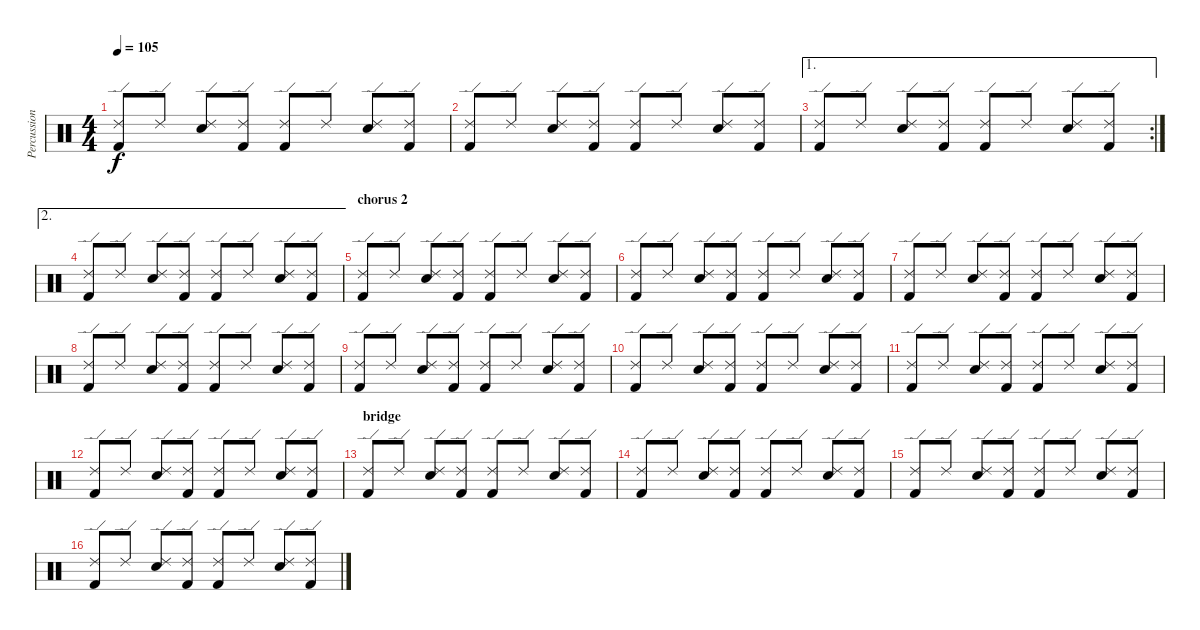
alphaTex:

\track ("Percussion" "Percussion") {instrument percussion}
\staff {score}
\articulation defaults
\ts (4 4)
\tempo 105
\clef neutral
\ks c
("Ride (edge) 2" "Kick (hit) 2").8{dy f} "Ride (edge) 2".8 ("Ride (edge) 2" "Electric Snare (hit)").8 ("Ride (edge) 2" "Kick (hit) 2").8 ("Ride (edge) 2" "Kick (hit) 2").8 "Ride (edge) 2".8 ("Ride (edge) 2" "Electric Snare (hit)").8 ("Ride (edge) 2" "Kick (hit) 2").8 |
("Ride (edge) 2" "Kick (hit) 2").8 "Ride (edge) 2".8 ("Ride (edge) 2" "Electric Snare (hit)").8 ("Ride (edge) 2" "Kick (hit) 2").8 ("Ride (edge) 2" "Kick (hit) 2").8 "Ride (edge) 2".8 ("Ride (edge) 2" "Electric Snare (hit)").8 ("Ride (edge) 2" "Kick (hit) 2").8 |
\ae 1
\rc 2
("Ride (edge) 2" "Kick (hit) 2").8 "Ride (edge) 2".8 ("Ride (edge) 2" "Electric Snare (hit)").8 ("Ride (edge) 2" "Kick (hit) 2").8 ("Ride (edge) 2" "Kick (hit) 2").8 "Ride (edge) 2".8 ("Ride (edge) 2" "Electric Snare (hit)").8 ("Ride (edge) 2" "Kick (hit) 2").8 |
\ae 2
("Ride (edge) 2" "Kick (hit) 2").8 "Ride (edge) 2".8 ("Ride (edge) 2" "Electric Snare (hit)").8 ("Ride (edge) 2" "Kick (hit) 2").8 ("Ride (edge) 2" "Kick (hit) 2").8 "Ride (edge) 2".8 ("Ride (edge) 2" "Electric Snare (hit)").8 ("Ride (edge) 2" "Kick (hit) 2").8 |
\section ("" "chorus 2")
("Ride (edge) 2" "Kick (hit) 2").8 "Ride (edge) 2".8 ("Ride (edge) 2" "Electric Snare (hit)").8 ("Ride (edge) 2" "Kick (hit) 2").8 ("Ride (edge) 2" "Kick (hit) 2").8 "Ride (edge) 2".8 ("Ride (edge) 2" "Electric Snare (hit)").8 ("Ride (edge) 2" "Kick (hit) 2").8 |
("Ride (edge) 2" "Kick (hit) 2").8 "Ride (edge) 2".8 ("Ride (edge) 2" "Electric Snare (hit)").8 ("Ride (edge) 2" "Kick (hit) 2").8 ("Ride (edge) 2" "Kick (hit) 2").8 "Ride (edge) 2".8 ("Ride (edge) 2" "Electric Snare (hit)").8 ("Ride (edge) 2" "Kick (hit) 2").8 |
("Ride (edge) 2" "Kick (hit) 2").8 "Ride (edge) 2".8 ("Ride (edge) 2" "Electric Snare (hit)").8 ("Ride (edge) 2" "Kick (hit) 2").8 ("Ride (edge) 2" "Kick (hit) 2").8 "Ride (edge) 2".8 ("Ride (edge) 2" "Electric Snare (hit)").8 ("Ride (edge) 2" "Kick (hit) 2").8 |
("Ride (edge) 2" "Kick (hit) 2").8 "Ride (edge) 2".8 ("Ride (edge) 2" "Electric Snare (hit)").8 ("Ride (edge) 2" "Kick (hit) 2").8 ("Ride (edge) 2" "Kick (hit) 2").8 "Ride (edge) 2".8 ("Ride (edge) 2" "Electric Snare (hit)").8 ("Ride (edge) 2" "Kick (hit) 2").8 |
("Ride (edge) 2" "Kick (hit) 2").8 "Ride (edge) 2".8 ("Ride (edge) 2" "Electric Snare (hit)").8 ("Ride (edge) 2" "Kick (hit) 2").8 ("Ride (edge) 2" "Kick (hit) 2").8 "Ride (edge) 2".8 ("Ride (edge) 2" "Electric Snare (hit)").8 ("Ride (edge) 2" "Kick (hit) 2").8 |
("Ride (edge) 2" "Kick (hit) 2").8 "Ride (edge) 2".8 ("Ride (edge) 2" "Electric Snare (hit)").8 ("Ride (edge) 2" "Kick (hit) 2").8 ("Ride (edge) 2" "Kick (hit) 2").8 "Ride (edge) 2".8 ("Ride (edge) 2" "Electric Snare (hit)").8 ("Ride (edge) 2" "Kick (hit) 2").8 |
("Ride (edge) 2" "Kick (hit) 2").8 "Ride (edge) 2".8 ("Ride (edge) 2" "Electric Snare (hit)").8 ("Ride (edge) 2" "Kick (hit) 2").8 ("Ride (edge) 2" "Kick (hit) 2").8 "Ride (edge) 2".8 ("Ride (edge) 2" "Electric Snare (hit)").8 ("Ride (edge) 2" "Kick (hit) 2").8 |
("Ride (edge) 2" "Kick (hit) 2").8 "Ride (edge) 2".8 ("Ride (edge) 2" "Electric Snare (hit)").8 ("Ride (edge) 2" "Kick (hit) 2").8 ("Ride (edge) 2" "Kick (hit) 2").8 "Ride (edge) 2".8 ("Ride (edge) 2" "Electric Snare (hit)").8 ("Ride (edge) 2" "Kick (hit) 2").8 |
\section ("" "bridge")
("Ride (edge) 2" "Kick (hit) 2").8 "Ride (edge) 2".8 ("Ride (edge) 2" "Electric Snare (hit)").8 ("Ride (edge) 2" "Kick (hit) 2").8 ("Ride (edge) 2" "Kick (hit) 2").8 "Ride (edge) 2".8 ("Ride (edge) 2" "Electric Snare (hit)").8 ("Ride (edge) 2" "Kick (hit) 2").8 |
("Ride (edge) 2" "Kick (hit) 2").8 "Ride (edge) 2".8 ("Ride (edge) 2" "Electric Snare (hit)").8 ("Ride (edge) 2" "Kick (hit) 2").8 ("Ride (edge) 2" "Kick (hit) 2").8 "Ride (edge) 2".8 ("Ride (edge) 2" "Electric Snare (hit)").8 ("Ride (edge) 2" "Kick (hit) 2").8 |
("Ride (edge) 2" "Kick (hit) 2").8 "Ride (edge) 2".8 ("Ride (edge) 2" "Electric Snare (hit)").8 ("Ride (edge) 2" "Kick (hit) 2").8 ("Ride (edge) 2" "Kick (hit) 2").8 "Ride (edge) 2".8 ("Ride (edge) 2" "Electric Snare (hit)").8 ("Ride (edge) 2" "Kick (hit) 2").8 |
("Ride (edge) 2" "Kick (hit) 2").8 "Ride (edge) 2".8 ("Ride (edge) 2" "Electric Snare (hit)").8 ("Ride (edge) 2" "Kick (hit) 2").8 ("Ride (edge) 2" "Kick (hit) 2").8 "Ride (edge) 2".8 ("Ride (edge) 2" "Electric Snare (hit)").8 ("Ride (edge) 2" "Kick (hit) 2").8
